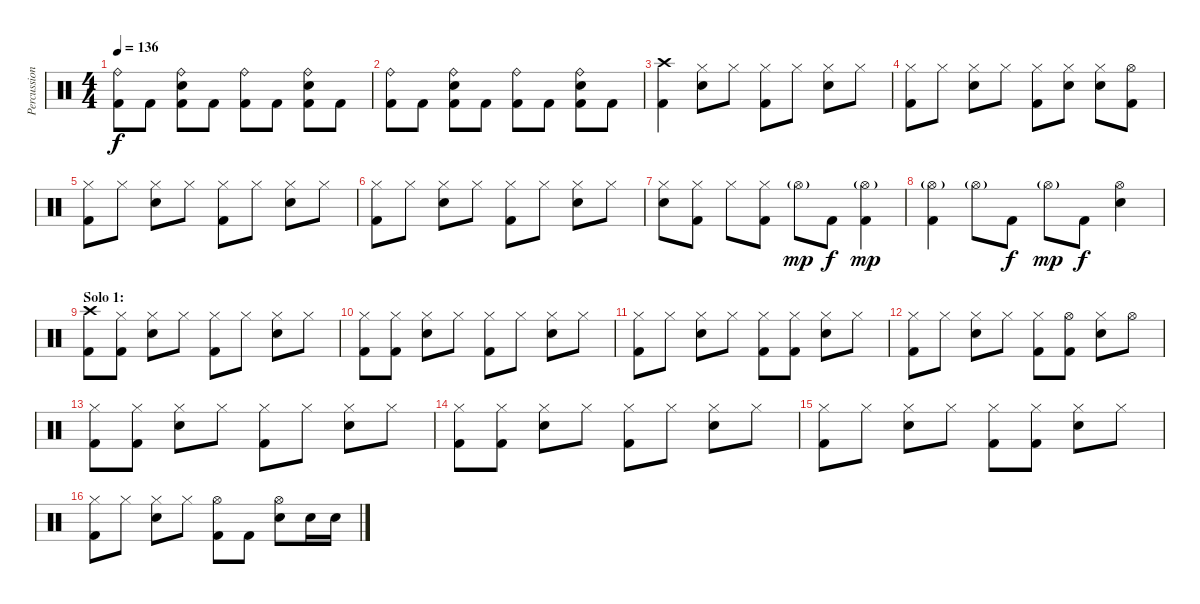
\track ("Percussion" "Percussion") {instrument percussion}
\staff {score}
\articulation defaults
\ts (4 4)
\tempo 136
\clef neutral
\ks c
("Ride (bell)" "Kick (hit) 2").8{dy f} "Kick (hit) 2".8 ("Ride (bell)" "Electric Snare (hit)" "Kick (hit) 2").8 "Kick (hit) 2".8 ("Ride (bell)" "Kick (hit) 2").8 "Kick (hit) 2".8 ("Ride (bell)" "Electric Snare (hit)" "Kick (hit) 2").8 "Kick (hit) 2".8 |
("Ride (bell)" "Kick (hit) 2").8 "Kick (hit) 2".8 ("Ride (bell)" "Electric Snare (hit)" "Kick (hit) 2").8 "Kick (hit) 2".8 ("Ride (bell)" "Kick (hit) 2").8 "Kick (hit) 2".8 ("Ride (bell)" "Electric Snare (hit)" "Kick (hit) 2").8 "Kick (hit) 2".8 |
("Crash high (hit)" "Kick (hit) 2").4 ("Hi-Hat (closed)" "Electric Snare (hit)").8 "Hi-Hat (closed)".8 ("Hi-Hat (closed)" "Kick (hit) 2").8 "Hi-Hat (closed)".8 ("Hi-Hat (closed)" "Electric Snare (hit)").8 "Hi-Hat (closed)".8 |
("Hi-Hat (closed)" "Kick (hit) 2").8 "Hi-Hat (closed)".8 ("Hi-Hat (closed)" "Electric Snare (hit)").8 "Hi-Hat (closed)".8 ("Hi-Hat (closed)" "Kick (hit) 2").8 ("Hi-Hat (closed)" "Electric Snare (hit)").8 ("Hi-Hat (closed)" "Electric Snare (hit)").8 ("Hi-Hat (open)" "Kick (hit) 2").8 |
("Hi-Hat (closed)" "Kick (hit) 2").8 "Hi-Hat (closed)".8 ("Hi-Hat (closed)" "Electric Snare (hit)").8 "Hi-Hat (closed)".8 ("Hi-Hat (closed)" "Kick (hit) 2").8 "Hi-Hat (closed)".8 ("Hi-Hat (closed)" "Electric Snare (hit)").8 "Hi-Hat (closed)".8 |
("Hi-Hat (closed)" "Kick (hit) 2").8 "Hi-Hat (closed)".8 ("Hi-Hat (closed)" "Electric Snare (hit)").8 "Hi-Hat (closed)".8 ("Hi-Hat (closed)" "Kick (hit) 2").8 "Hi-Hat (closed)".8 ("Hi-Hat (closed)" "Electric Snare (hit)").8 "Hi-Hat (closed)".8 |
("Hi-Hat (closed)" "Electric Snare (hit)").8 ("Hi-Hat (closed)" "Kick (hit) 2").8 "Hi-Hat (closed)".8 ("Hi-Hat (closed)" "Kick (hit) 2").8 "Hi-Hat (open)"{g}.8{dy mp} "Kick (hit) 2".8{dy f} ("Hi-Hat (open)"{g} "Kick (hit) 2").4{dy mp} |
("Hi-Hat (open)"{g} "Kick (hit) 2").4 "Hi-Hat (open)"{g}.8 "Kick (hit) 2".8{dy f} "Hi-Hat (open)"{g}.8{dy mp} "Kick (hit) 2".8{dy f} ("Hi-Hat (open)" "Electric Snare (hit)").4 |
\section ("" "Solo 1:")
("Crash high (hit)" "Kick (hit) 2").8 ("Hi-Hat (closed)" "Kick (hit) 2").8 ("Hi-Hat (closed)" "Electric Snare (hit)").8 "Hi-Hat (closed)".8 ("Hi-Hat (closed)" "Kick (hit) 2").8 "Hi-Hat (closed)".8 ("Hi-Hat (closed)" "Electric Snare (hit)").8 "Hi-Hat (closed)".8 |
("Hi-Hat (closed)" "Kick (hit) 2").8 ("Hi-Hat (closed)" "Kick (hit) 2").8 ("Hi-Hat (closed)" "Electric Snare (hit)").8 "Hi-Hat (closed)".8 ("Hi-Hat (closed)" "Kick (hit) 2").8 "Hi-Hat (closed)".8 ("Hi-Hat (closed)" "Electric Snare (hit)").8 "Hi-Hat (closed)".8 |
("Hi-Hat (closed)" "Kick (hit) 2").8 "Hi-Hat (closed)".8 ("Hi-Hat (closed)" "Electric Snare (hit)").8 "Hi-Hat (closed)".8 ("Hi-Hat (closed)" "Kick (hit) 2").8 ("Hi-Hat (closed)" "Kick (hit) 2").8 ("Hi-Hat (closed)" "Electric Snare (hit)").8 "Hi-Hat (closed)".8 |
("Hi-Hat (closed)" "Kick (hit) 2").8 "Hi-Hat (closed)".8 ("Hi-Hat (closed)" "Electric Snare (hit)").8 "Hi-Hat (closed)".8 ("Hi-Hat (closed)" "Kick (hit) 2").8 ("Hi-Hat (open)" "Kick (hit) 2").8 ("Hi-Hat (closed)" "Electric Snare (hit)").8 "Hi-Hat (open)".8 |
("Hi-Hat (closed)" "Kick (hit) 2").8 ("Hi-Hat (closed)" "Kick (hit) 2").8 ("Hi-Hat (closed)" "Electric Snare (hit)").8 "Hi-Hat (closed)".8 ("Hi-Hat (closed)" "Kick (hit) 2").8 "Hi-Hat (closed)".8 ("Hi-Hat (closed)" "Electric Snare (hit)").8 "Hi-Hat (closed)".8 |
("Hi-Hat (closed)" "Kick (hit) 2").8 ("Hi-Hat (closed)" "Kick (hit) 2").8 ("Hi-Hat (closed)" "Electric Snare (hit)").8 "Hi-Hat (closed)".8 ("Hi-Hat (closed)" "Kick (hit) 2").8 "Hi-Hat (closed)".8 ("Hi-Hat (closed)" "Electric Snare (hit)").8 "Hi-Hat (closed)".8 |
("Hi-Hat (closed)" "Kick (hit) 2").8 "Hi-Hat (closed)".8 ("Hi-Hat (closed)" "Electric Snare (hit)").8 "Hi-Hat (closed)".8 ("Hi-Hat (closed)" "Kick (hit) 2").8 ("Hi-Hat (closed)" "Kick (hit) 2").8 ("Hi-Hat (closed)" "Electric Snare (hit)").8 "Hi-Hat (closed)".8 |
("Hi-Hat (closed)" "Kick (hit) 2").8 "Hi-Hat (closed)".8 ("Hi-Hat (closed)" "Electric Snare (hit)").8 "Hi-Hat (closed)".8 ("Hi-Hat (open)" "Kick (hit) 2").8 "Kick (hit) 2".8 ("Hi-Hat (open)" "Electric Snare (hit)").8 "Electric Snare (hit)".16 "Electric Snare (hit)".16
